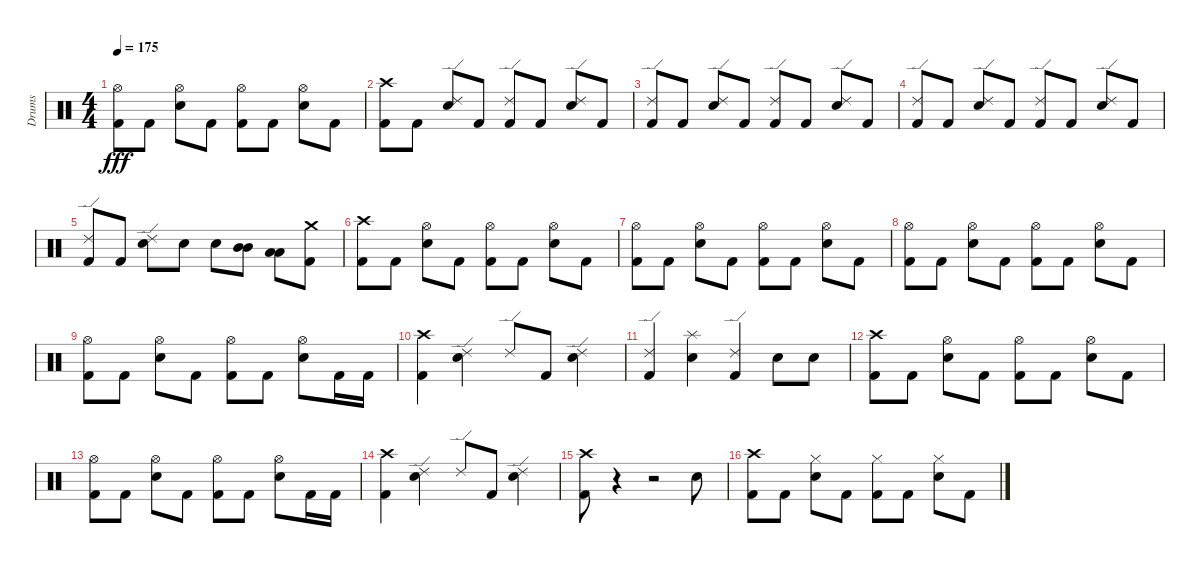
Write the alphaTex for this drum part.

\track ("Drums" "Drums") {instrument percussion}
\staff {score}
\articulation defaults
\ts (4 4)
\tempo 175
\clef neutral
\ks c
("Kick (hit) 2" "Hi-Hat (open)").8{dy fff} "Kick (hit) 2".8 ("Electric Snare (hit)" "Hi-Hat (open)").8 "Kick (hit) 2".8 ("Kick (hit) 2" "Hi-Hat (open)").8 "Kick (hit) 2".8 ("Electric Snare (hit)" "Hi-Hat (open)").8 "Kick (hit) 2".8 |
("Kick (hit) 2" "Crash high (hit)").8 "Kick (hit) 2".8 ("Electric Snare (hit)" "Ride (edge) 2").8 "Kick (hit) 2".8 ("Kick (hit) 2" "Ride (edge) 2").8 "Kick (hit) 2".8 ("Electric Snare (hit)" "Ride (edge) 2").8 "Kick (hit) 2".8 |
("Kick (hit) 2" "Ride (edge) 2").8 "Kick (hit) 2".8 ("Electric Snare (hit)" "Ride (edge) 2").8 "Kick (hit) 2".8 ("Kick (hit) 2" "Ride (edge) 2").8 "Kick (hit) 2".8 ("Electric Snare (hit)" "Ride (edge) 2").8 "Kick (hit) 2".8 |
("Kick (hit) 2" "Ride (edge) 2").8 "Kick (hit) 2".8 ("Electric Snare (hit)" "Ride (edge) 2").8 "Kick (hit) 2".8 ("Kick (hit) 2" "Ride (edge) 2").8 "Kick (hit) 2".8 ("Electric Snare (hit)" "Ride (edge) 2").8 "Kick (hit) 2".8 |
("Kick (hit) 2" "Ride (edge) 2").8 "Kick (hit) 2".8 ("Electric Snare (hit)" "Ride (edge) 2").8 "Electric Snare (hit)".8 "Electric Snare (hit)".8 ("Mid Tom (hit)" "Mid Tom (hit)").8 ("Low Tom (hit)" "Low Tom (hit)").8 ("Kick (hit) 2" "Crash medium (hit)").8 |
("Kick (hit) 2" "Crash high (hit)").8 "Kick (hit) 2".8 ("Electric Snare (hit)" "Hi-Hat (open)").8 "Kick (hit) 2".8 ("Kick (hit) 2" "Hi-Hat (open)").8 "Kick (hit) 2".8 ("Electric Snare (hit)" "Hi-Hat (open)").8 "Kick (hit) 2".8 |
("Kick (hit) 2" "Hi-Hat (open)").8 "Kick (hit) 2".8 ("Electric Snare (hit)" "Hi-Hat (open)").8 "Kick (hit) 2".8 ("Kick (hit) 2" "Hi-Hat (open)").8 "Kick (hit) 2".8 ("Electric Snare (hit)" "Hi-Hat (open)").8 "Kick (hit) 2".8 |
("Kick (hit) 2" "Hi-Hat (open)").8 "Kick (hit) 2".8 ("Electric Snare (hit)" "Hi-Hat (open)").8 "Kick (hit) 2".8 ("Kick (hit) 2" "Hi-Hat (open)").8 "Kick (hit) 2".8 ("Electric Snare (hit)" "Hi-Hat (open)").8 "Kick (hit) 2".8 |
("Kick (hit) 2" "Hi-Hat (open)").8 "Kick (hit) 2".8 ("Electric Snare (hit)" "Hi-Hat (open)").8 "Kick (hit) 2".8 ("Kick (hit) 2" "Hi-Hat (open)").8 "Kick (hit) 2".8 ("Electric Snare (hit)" "Hi-Hat (open)").8 "Kick (hit) 2".16 "Kick (hit) 2".16 |
("Kick (hit) 2" "Crash high (hit)").4 ("Electric Snare (hit)" "Ride (edge) 2").4 "Ride (edge) 2".8 "Kick (hit) 2".8 ("Electric Snare (hit)" "Ride (edge) 2").4 |
("Kick (hit) 2" "Ride (edge) 2").4 ("Electric Snare (hit)" "Splash (hit)").4 ("Kick (hit) 2" "Ride (edge) 2").4 "Electric Snare (hit)".8 "Electric Snare (hit)".8 |
("Kick (hit) 2" "Crash high (hit)").8 "Kick (hit) 2".8 ("Electric Snare (hit)" "Hi-Hat (open)").8 "Kick (hit) 2".8 ("Kick (hit) 2" "Hi-Hat (open)").8 "Kick (hit) 2".8 ("Electric Snare (hit)" "Hi-Hat (open)").8 "Kick (hit) 2".8 |
("Kick (hit) 2" "Hi-Hat (open)").8 "Kick (hit) 2".8 ("Electric Snare (hit)" "Hi-Hat (open)").8 "Kick (hit) 2".8 ("Kick (hit) 2" "Hi-Hat (open)").8 "Kick (hit) 2".8 ("Electric Snare (hit)" "Hi-Hat (open)").8 "Kick (hit) 2".16 "Kick (hit) 2".16 |
("Kick (hit) 2" "Crash high (hit)").4 ("Electric Snare (hit)" "Ride (edge) 2").4 "Ride (edge) 2".8 "Kick (hit) 2".8 ("Electric Snare (hit)" "Ride (edge) 2").4 |
("Kick (hit) 2" "Crash high (hit)").8 r.4 r.2 "Electric Snare (hit)".8 |
("Kick (hit) 2" "Crash high (hit)").8 "Kick (hit) 2".8 ("Electric Snare (hit)" "Hi-Hat (closed)").8 "Kick (hit) 2".8 ("Kick (hit) 2" "Hi-Hat (closed)").8 "Kick (hit) 2".8 ("Electric Snare (hit)" "Hi-Hat (closed)").8 "Kick (hit) 2".8
